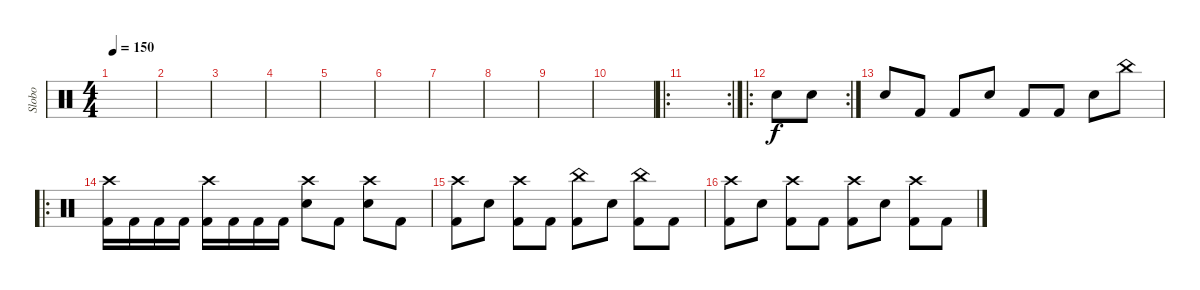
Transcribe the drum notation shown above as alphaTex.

\track ("Slobo" "Slobo") {instrument percussion}
\staff {score}
\articulation defaults
\ts (4 4)
\tempo 150
\clef neutral
\ks c
|
|
|
|
|
|
|
|
|
|
\ro
\rc 2
|
\ro
\rc 2 "Snare (hit) 2".8 "Snare (hit) 2".8
|
"Snare (hit) 2".8 "Kick (hit) 2".8 "Kick (hit) 2".8 "Snare (hit) 2".8 "Kick (hit) 2".8 "Kick (hit) 2".8 "Snare (hit) 2".8 "China (hit)".8 |
\ro
("Crash high (hit)" "Kick (hit) 2").16 "Kick (hit) 2".16 "Kick (hit) 2".16 "Kick (hit) 2".16 ("Crash high (hit)" "Kick (hit) 2").16 "Kick (hit) 2".16 "Kick (hit) 2".16 "Kick (hit) 2".16 ("Crash high (hit)" "Snare (hit) 2").8 "Kick (hit) 2".8 ("Crash high (hit)" "Snare (hit) 2").8 "Kick (hit) 2".8 |
("Crash high (hit)" "Kick (hit) 2").8 "Snare (hit) 2".8 ("Crash high (hit)" "Kick (hit) 2").8 "Kick (hit) 2".8 ("China (hit)" "Kick (hit) 2").8 "Snare (hit) 2".8 ("China (hit)" "Kick (hit) 2").8 "Kick (hit) 2".8 |
("Crash high (hit)" "Kick (hit) 2").8 "Snare (hit) 2".8 ("Crash high (hit)" "Kick (hit) 2").8 "Kick (hit) 2".8 ("Crash high (hit)" "Kick (hit) 2").8 "Snare (hit) 2".8 ("Crash high (hit)" "Kick (hit) 2").8 "Kick (hit) 2".8
